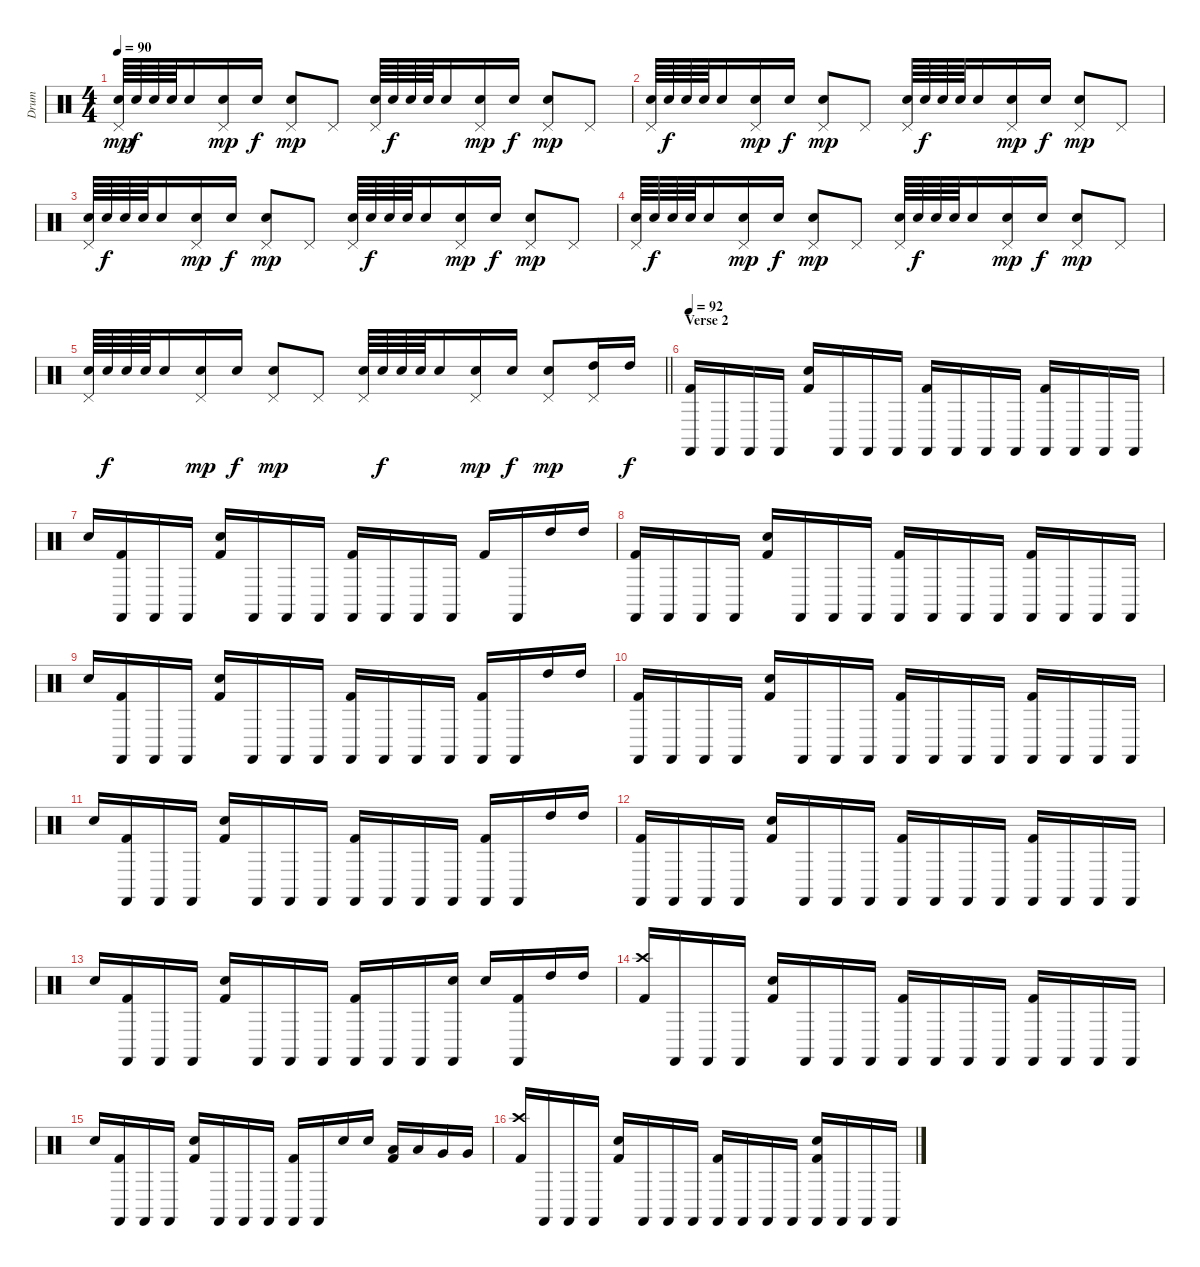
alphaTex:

\track ("Drum" "Drum") {instrument percussion}
\staff {score}
\articulation defaults
\ts (4 4)
\tempo 90
\clef neutral
\ks c
("Snare (hit) 2" "Pedal Hi-Hat (hit)").64{dy mp} "Snare (hit) 2".64{dy f} "Snare (hit) 2".64 "Snare (hit) 2".64 "Snare (hit) 2".16 ("Snare (hit) 2" "Pedal Hi-Hat (hit)").16{dy mp} "Snare (hit) 2".16{dy f} ("Snare (hit) 2" "Pedal Hi-Hat (hit)").8{dy mp} "Pedal Hi-Hat (hit)".8 ("Snare (hit) 2" "Pedal Hi-Hat (hit)").64 "Snare (hit) 2".64{dy f} "Snare (hit) 2".64 "Snare (hit) 2".64 "Snare (hit) 2".16 ("Snare (hit) 2" "Pedal Hi-Hat (hit)").16{dy mp} "Snare (hit) 2".16{dy f} ("Snare (hit) 2" "Pedal Hi-Hat (hit)").8{dy mp} "Pedal Hi-Hat (hit)".8 |
("Snare (hit) 2" "Pedal Hi-Hat (hit)").64 "Snare (hit) 2".64{dy f} "Snare (hit) 2".64 "Snare (hit) 2".64 "Snare (hit) 2".16 ("Snare (hit) 2" "Pedal Hi-Hat (hit)").16{dy mp} "Snare (hit) 2".16{dy f} ("Snare (hit) 2" "Pedal Hi-Hat (hit)").8{dy mp} "Pedal Hi-Hat (hit)".8 ("Snare (hit) 2" "Pedal Hi-Hat (hit)").64 "Snare (hit) 2".64{dy f} "Snare (hit) 2".64 "Snare (hit) 2".64 "Snare (hit) 2".16 ("Snare (hit) 2" "Pedal Hi-Hat (hit)").16{dy mp} "Snare (hit) 2".16{dy f} ("Snare (hit) 2" "Pedal Hi-Hat (hit)").8{dy mp} "Pedal Hi-Hat (hit)".8 |
("Snare (hit) 2" "Pedal Hi-Hat (hit)").64 "Snare (hit) 2".64{dy f} "Snare (hit) 2".64 "Snare (hit) 2".64 "Snare (hit) 2".16 ("Snare (hit) 2" "Pedal Hi-Hat (hit)").16{dy mp} "Snare (hit) 2".16{dy f} ("Snare (hit) 2" "Pedal Hi-Hat (hit)").8{dy mp} "Pedal Hi-Hat (hit)".8 ("Snare (hit) 2" "Pedal Hi-Hat (hit)").64 "Snare (hit) 2".64{dy f} "Snare (hit) 2".64 "Snare (hit) 2".64 "Snare (hit) 2".16 ("Snare (hit) 2" "Pedal Hi-Hat (hit)").16{dy mp} "Snare (hit) 2".16{dy f} ("Snare (hit) 2" "Pedal Hi-Hat (hit)").8{dy mp} "Pedal Hi-Hat (hit)".8 |
("Snare (hit) 2" "Pedal Hi-Hat (hit)").64 "Snare (hit) 2".64{dy f} "Snare (hit) 2".64 "Snare (hit) 2".64 "Snare (hit) 2".16 ("Snare (hit) 2" "Pedal Hi-Hat (hit)").16{dy mp} "Snare (hit) 2".16{dy f} ("Snare (hit) 2" "Pedal Hi-Hat (hit)").8{dy mp} "Pedal Hi-Hat (hit)".8 ("Snare (hit) 2" "Pedal Hi-Hat (hit)").64 "Snare (hit) 2".64{dy f} "Snare (hit) 2".64 "Snare (hit) 2".64 "Snare (hit) 2".16 ("Snare (hit) 2" "Pedal Hi-Hat (hit)").16{dy mp} "Snare (hit) 2".16{dy f} ("Snare (hit) 2" "Pedal Hi-Hat (hit)").8{dy mp} "Pedal Hi-Hat (hit)".8 |
\barLineRight lightlight
("Snare (hit) 2" "Pedal Hi-Hat (hit)").64 "Snare (hit) 2".64{dy f} "Snare (hit) 2".64 "Snare (hit) 2".64 "Snare (hit) 2".16 ("Snare (hit) 2" "Pedal Hi-Hat (hit)").16{dy mp} "Snare (hit) 2".16{dy f} ("Snare (hit) 2" "Pedal Hi-Hat (hit)").8{dy mp} "Pedal Hi-Hat (hit)".8 ("Snare (hit) 2" "Pedal Hi-Hat (hit)").64 "Snare (hit) 2".64{dy f} "Snare (hit) 2".64 "Snare (hit) 2".64 "Snare (hit) 2".16 ("Snare (hit) 2" "Pedal Hi-Hat (hit)").16{dy mp} "Snare (hit) 2".16{dy f} ("Snare (hit) 2" "Pedal Hi-Hat (hit)").8{dy mp} ("High Tom (hit)" "Pedal Hi-Hat (hit)").16 "High Tom (hit)".16{dy f} |
\section ("" "Verse 2")
\tempo 92
("Castanets (hit)" "Kick (hit) 2").16{volume 6} "Castanets (hit)".16 "Castanets (hit)".16 "Castanets (hit)".16 ("Snare (hit) 2" "Kick (hit) 2").16 "Castanets (hit)".16 "Castanets (hit)".16 "Castanets (hit)".16 ("Castanets (hit)" "Kick (hit) 2").16 "Castanets (hit)".16 "Castanets (hit)".16 "Castanets (hit)".16 ("Castanets (hit)" "Kick (hit) 2").16 "Castanets (hit)".16 "Castanets (hit)".16 "Castanets (hit)".16 |
"Snare (hit) 2".16 ("Castanets (hit)" "Kick (hit) 2").16 "Castanets (hit)".16 "Castanets (hit)".16 ("Snare (hit) 2" "Kick (hit) 2").16 "Castanets (hit)".16 "Castanets (hit)".16 "Castanets (hit)".16 ("Castanets (hit)" "Kick (hit) 2").16 "Castanets (hit)".16 "Castanets (hit)".16 "Castanets (hit)".16 "Kick (hit) 2".16 "Castanets (hit)".16 "High Tom (hit)".16 "High Tom (hit)".16 |
("Castanets (hit)" "Kick (hit) 2").16 "Castanets (hit)".16 "Castanets (hit)".16 "Castanets (hit)".16 ("Snare (hit) 2" "Kick (hit) 2").16 "Castanets (hit)".16 "Castanets (hit)".16 "Castanets (hit)".16 ("Castanets (hit)" "Kick (hit) 2").16 "Castanets (hit)".16 "Castanets (hit)".16 "Castanets (hit)".16 ("Castanets (hit)" "Kick (hit) 2").16 "Castanets (hit)".16 "Castanets (hit)".16 "Castanets (hit)".16 |
"Snare (hit) 2".16 ("Castanets (hit)" "Kick (hit) 2").16 "Castanets (hit)".16 "Castanets (hit)".16 ("Snare (hit) 2" "Kick (hit) 2").16 "Castanets (hit)".16 "Castanets (hit)".16 "Castanets (hit)".16 ("Castanets (hit)" "Kick (hit) 2").16 "Castanets (hit)".16 "Castanets (hit)".16 "Castanets (hit)".16 ("Castanets (hit)" "Kick (hit) 2").16 "Castanets (hit)".16 "High Tom (hit)".16 "High Tom (hit)".16 |
("Castanets (hit)" "Kick (hit) 2").16 "Castanets (hit)".16 "Castanets (hit)".16 "Castanets (hit)".16 ("Snare (hit) 2" "Kick (hit) 2").16 "Castanets (hit)".16 "Castanets (hit)".16 "Castanets (hit)".16 ("Castanets (hit)" "Kick (hit) 2").16 "Castanets (hit)".16 "Castanets (hit)".16 "Castanets (hit)".16 ("Castanets (hit)" "Kick (hit) 2").16 "Castanets (hit)".16 "Castanets (hit)".16 "Castanets (hit)".16 |
"Snare (hit) 2".16 ("Castanets (hit)" "Kick (hit) 2").16 "Castanets (hit)".16 "Castanets (hit)".16 ("Snare (hit) 2" "Kick (hit) 2").16 "Castanets (hit)".16 "Castanets (hit)".16 "Castanets (hit)".16 ("Castanets (hit)" "Kick (hit) 2").16 "Castanets (hit)".16 "Castanets (hit)".16 "Castanets (hit)".16 ("Castanets (hit)" "Kick (hit) 2").16 "Castanets (hit)".16 "High Tom (hit)".16 "High Tom (hit)".16 |
("Castanets (hit)" "Kick (hit) 2").16 "Castanets (hit)".16 "Castanets (hit)".16 "Castanets (hit)".16 ("Snare (hit) 2" "Kick (hit) 2").16 "Castanets (hit)".16 "Castanets (hit)".16 "Castanets (hit)".16 ("Castanets (hit)" "Kick (hit) 2").16 "Castanets (hit)".16 "Castanets (hit)".16 "Castanets (hit)".16 ("Castanets (hit)" "Kick (hit) 2").16 "Castanets (hit)".16 "Castanets (hit)".16 "Castanets (hit)".16 |
"Snare (hit) 2".16 ("Castanets (hit)" "Kick (hit) 2").16 "Castanets (hit)".16 "Castanets (hit)".16 ("Snare (hit) 2" "Kick (hit) 2").16 "Castanets (hit)".16 "Castanets (hit)".16 "Castanets (hit)".16 ("Castanets (hit)" "Kick (hit) 2").16 "Castanets (hit)".16 "Castanets (hit)".16 ("Castanets (hit)" "Snare (hit) 2").16 "Snare (hit) 2".16 ("Castanets (hit)" "Kick (hit) 2").16 "High Tom (hit)".16 "High Tom (hit)".16 |
("Crash high (hit)" "Kick (hit) 2").16 "Castanets (hit)".16 "Castanets (hit)".16 "Castanets (hit)".16 ("Snare (hit) 2" "Kick (hit) 2").16 "Castanets (hit)".16 "Castanets (hit)".16 "Castanets (hit)".16 ("Castanets (hit)" "Kick (hit) 2").16 "Castanets (hit)".16 "Castanets (hit)".16 "Castanets (hit)".16 ("Castanets (hit)" "Kick (hit) 2").16 "Castanets (hit)".16 "Castanets (hit)".16 "Castanets (hit)".16 |
"Snare (hit) 2".16 ("Castanets (hit)" "Kick (hit) 2").16 "Castanets (hit)".16 "Castanets (hit)".16 ("Snare (hit) 2" "Kick (hit) 2").16 "Castanets (hit)".16 "Castanets (hit)".16 "Castanets (hit)".16 ("Castanets (hit)" "Kick (hit) 2").16 "Castanets (hit)".16 "Snare (hit) 2".16 "Snare (hit) 2".16 ("Low Tom (hit)" "Kick (hit) 2").16 "Low Tom (hit)".16 "Very Low Tom (hit)".16 "Very Low Tom (hit)".16 |
("Crash high (hit)" "Kick (hit) 2").16 "Castanets (hit)".16 "Castanets (hit)".16 "Castanets (hit)".16 ("Snare (hit) 2" "Kick (hit) 2").16 "Castanets (hit)".16 "Castanets (hit)".16 "Castanets (hit)".16 ("Castanets (hit)" "Kick (hit) 2").16 "Castanets (hit)".16 "Castanets (hit)".16 "Castanets (hit)".16 ("Castanets (hit)" "Snare (hit) 2" "Kick (hit) 2").16 "Castanets (hit)".16 "Castanets (hit)".16 "Castanets (hit)".16
